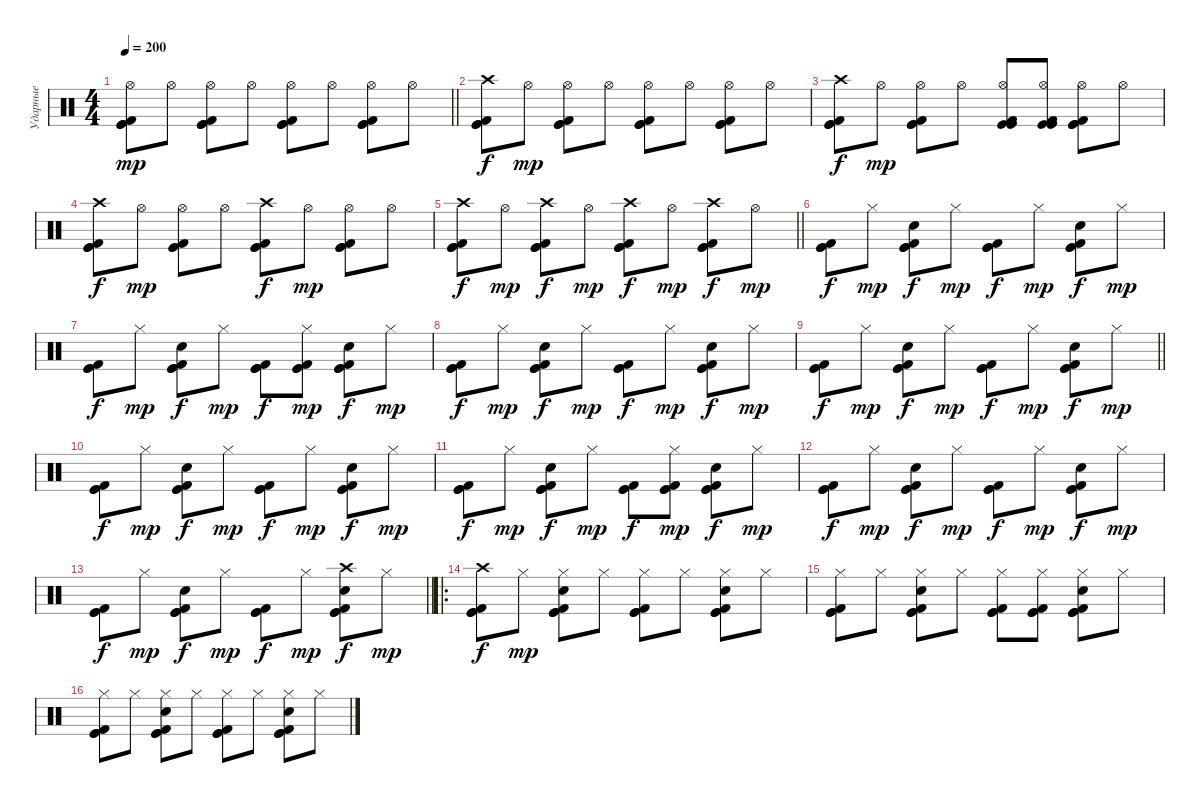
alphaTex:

\track ("Ударные" "Ударные") {instrument percussion}
\staff {score}
\articulation defaults
\ts (4 4)
\tempo 200
\clef neutral
\barLineRight lightlight
\ks c
("Kick (hit)" "Kick (hit)" "Hi-Hat (open)" "Kick (hit) 2").8{dy mp} "Hi-Hat (open)".8 ("Kick (hit)" "Kick (hit)" "Hi-Hat (open)" "Kick (hit) 2").8 "Hi-Hat (open)".8 ("Kick (hit)" "Kick (hit)" "Hi-Hat (open)" "Kick (hit) 2").8 "Hi-Hat (open)".8 ("Kick (hit)" "Kick (hit)" "Hi-Hat (open)" "Kick (hit) 2").8 "Hi-Hat (open)".8 |
("Kick (hit)" "Kick (hit)" "Crash high (hit)" "Kick (hit) 2").8{dy f} "Hi-Hat (open)".8{dy mp} ("Kick (hit)" "Kick (hit)" "Hi-Hat (open)" "Kick (hit) 2").8 "Hi-Hat (open)".8 ("Kick (hit)" "Kick (hit)" "Hi-Hat (open)" "Kick (hit) 2").8 "Hi-Hat (open)".8 ("Kick (hit)" "Kick (hit)" "Hi-Hat (open)" "Kick (hit) 2").8 "Hi-Hat (open)".8 |
("Kick (hit)" "Kick (hit)" "Crash high (hit)" "Kick (hit) 2").8{dy f} "Hi-Hat (open)".8{dy mp} ("Kick (hit)" "Kick (hit)" "Hi-Hat (open)" "Kick (hit) 2").8 "Hi-Hat (open)".8 ("Kick (hit)" "Kick (hit)" "Hi-Hat (open)" "Kick (hit) 2").8 ("Kick (hit)" "Kick (hit)" "Hi-Hat (open)" "Kick (hit) 2").8 ("Kick (hit)" "Kick (hit)" "Hi-Hat (open)" "Kick (hit) 2").8 "Hi-Hat (open)".8 |
("Kick (hit)" "Kick (hit)" "Crash high (hit)" "Kick (hit) 2").8{dy f} "Hi-Hat (open)".8{dy mp} ("Kick (hit)" "Kick (hit)" "Hi-Hat (open)" "Kick (hit) 2").8 "Hi-Hat (open)".8 ("Kick (hit)" "Kick (hit)" "Crash high (hit)" "Kick (hit) 2").8{dy f} "Hi-Hat (open)".8{dy mp} ("Kick (hit)" "Kick (hit)" "Hi-Hat (open)" "Kick (hit) 2").8 "Hi-Hat (open)".8 |
\barLineRight lightlight
("Kick (hit)" "Kick (hit)" "Crash high (hit)" "Kick (hit) 2").8{dy f} "Hi-Hat (open)".8{dy mp} ("Kick (hit)" "Kick (hit)" "Crash high (hit)" "Kick (hit) 2").8{dy f} "Hi-Hat (open)".8{dy mp} ("Kick (hit)" "Kick (hit)" "Crash high (hit)" "Kick (hit) 2").8{dy f} "Hi-Hat (open)".8{dy mp} ("Kick (hit)" "Kick (hit)" "Crash high (hit)" "Kick (hit) 2").8{dy f} "Hi-Hat (open)".8{dy mp} |
("Kick (hit)" "Kick (hit)" "Kick (hit) 2").8{dy f} "Hi-Hat (closed)".8{dy mp} ("Kick (hit)" "Kick (hit)" "Hand Clap (hit)" "Kick (hit) 2").8{dy f} "Hi-Hat (closed)".8{dy mp} ("Kick (hit)" "Kick (hit)" "Kick (hit) 2").8{dy f} "Hi-Hat (closed)".8{dy mp} ("Kick (hit)" "Kick (hit)" "Hand Clap (hit)" "Kick (hit) 2").8{dy f} "Hi-Hat (closed)".8{dy mp} |
("Kick (hit)" "Kick (hit)" "Kick (hit) 2").8{dy f} "Hi-Hat (closed)".8{dy mp} ("Kick (hit)" "Kick (hit)" "Hand Clap (hit)" "Kick (hit) 2").8{dy f} "Hi-Hat (closed)".8{dy mp} ("Kick (hit)" "Kick (hit)" "Kick (hit) 2").8{dy f} ("Kick (hit)" "Kick (hit)" "Hi-Hat (closed)" "Kick (hit) 2").8{dy mp} ("Kick (hit)" "Kick (hit)" "Hand Clap (hit)" "Kick (hit) 2").8{dy f} "Hi-Hat (closed)".8{dy mp} |
("Kick (hit)" "Kick (hit)" "Kick (hit) 2").8{dy f} "Hi-Hat (closed)".8{dy mp} ("Kick (hit)" "Kick (hit)" "Hand Clap (hit)" "Kick (hit) 2").8{dy f} "Hi-Hat (closed)".8{dy mp} ("Kick (hit)" "Kick (hit)" "Kick (hit) 2").8{dy f} "Hi-Hat (closed)".8{dy mp} ("Kick (hit)" "Kick (hit)" "Hand Clap (hit)" "Kick (hit) 2").8{dy f} "Hi-Hat (closed)".8{dy mp} |
\barLineRight lightlight
("Kick (hit)" "Kick (hit)" "Kick (hit) 2").8{dy f} "Hi-Hat (closed)".8{dy mp} ("Kick (hit)" "Kick (hit)" "Hand Clap (hit)" "Kick (hit) 2").8{dy f} "Hi-Hat (closed)".8{dy mp} ("Kick (hit)" "Kick (hit)" "Kick (hit) 2").8{dy f} "Hi-Hat (closed)".8{dy mp} ("Kick (hit)" "Kick (hit)" "Hand Clap (hit)" "Kick (hit) 2").8{dy f} "Hi-Hat (closed)".8{dy mp} |
("Kick (hit)" "Kick (hit)" "Kick (hit) 2").8{dy f} "Hi-Hat (closed)".8{dy mp} ("Kick (hit)" "Kick (hit)" "Hand Clap (hit)" "Kick (hit) 2").8{dy f} "Hi-Hat (closed)".8{dy mp} ("Kick (hit)" "Kick (hit)" "Kick (hit) 2").8{dy f} "Hi-Hat (closed)".8{dy mp} ("Kick (hit)" "Kick (hit)" "Hand Clap (hit)" "Kick (hit) 2").8{dy f} "Hi-Hat (closed)".8{dy mp} |
("Kick (hit)" "Kick (hit)" "Kick (hit) 2").8{dy f} "Hi-Hat (closed)".8{dy mp} ("Kick (hit)" "Kick (hit)" "Hand Clap (hit)" "Kick (hit) 2").8{dy f} "Hi-Hat (closed)".8{dy mp} ("Kick (hit)" "Kick (hit)" "Kick (hit) 2").8{dy f} ("Kick (hit)" "Kick (hit)" "Hi-Hat (closed)" "Kick (hit) 2").8{dy mp} ("Kick (hit)" "Kick (hit)" "Hand Clap (hit)" "Kick (hit) 2").8{dy f} "Hi-Hat (closed)".8{dy mp} |
("Kick (hit)" "Kick (hit)" "Kick (hit) 2").8{dy f} "Hi-Hat (closed)".8{dy mp} ("Kick (hit)" "Kick (hit)" "Hand Clap (hit)" "Kick (hit) 2").8{dy f} "Hi-Hat (closed)".8{dy mp} ("Kick (hit)" "Kick (hit)" "Kick (hit) 2").8{dy f} "Hi-Hat (closed)".8{dy mp} ("Kick (hit)" "Kick (hit)" "Hand Clap (hit)" "Kick (hit) 2").8{dy f} "Hi-Hat (closed)".8{dy mp} |
\barLineRight lightlight
("Kick (hit)" "Kick (hit)" "Kick (hit) 2").8{dy f} "Hi-Hat (closed)".8{dy mp} ("Kick (hit)" "Kick (hit)" "Hand Clap (hit)" "Kick (hit) 2").8{dy f} "Hi-Hat (closed)".8{dy mp} ("Kick (hit)" "Kick (hit)" "Kick (hit) 2").8{dy f} "Hi-Hat (closed)".8{dy mp} ("Kick (hit)" "Kick (hit)" "Hand Clap (hit)" "Crash high (hit)" "Kick (hit) 2").8{dy f} "Hi-Hat (closed)".8{dy mp} |
\ro
("Kick (hit)" "Kick (hit)" "Crash high (hit)" "Kick (hit) 2").8{dy f} "Hi-Hat (closed)".8{dy mp} ("Kick (hit)" "Kick (hit)" "Hi-Hat (closed)" "Hand Clap (hit)" "Kick (hit) 2").8 "Hi-Hat (closed)".8 ("Kick (hit)" "Kick (hit)" "Hi-Hat (closed)" "Kick (hit) 2").8 "Hi-Hat (closed)".8 ("Kick (hit)" "Kick (hit)" "Hi-Hat (closed)" "Hand Clap (hit)" "Kick (hit) 2").8 "Hi-Hat (closed)".8 |
("Kick (hit)" "Kick (hit)" "Hi-Hat (closed)" "Kick (hit) 2").8 "Hi-Hat (closed)".8 ("Kick (hit)" "Kick (hit)" "Hi-Hat (closed)" "Hand Clap (hit)" "Kick (hit) 2").8 "Hi-Hat (closed)".8 ("Kick (hit)" "Kick (hit)" "Hi-Hat (closed)" "Kick (hit) 2").8 ("Kick (hit)" "Kick (hit)" "Hi-Hat (closed)" "Kick (hit) 2").8 ("Kick (hit)" "Kick (hit)" "Hi-Hat (closed)" "Hand Clap (hit)" "Kick (hit) 2").8 "Hi-Hat (closed)".8 |
("Kick (hit)" "Kick (hit)" "Hi-Hat (closed)" "Kick (hit) 2").8 "Hi-Hat (closed)".8 ("Kick (hit)" "Kick (hit)" "Hi-Hat (closed)" "Hand Clap (hit)" "Kick (hit) 2").8 "Hi-Hat (closed)".8 ("Kick (hit)" "Kick (hit)" "Hi-Hat (closed)" "Kick (hit) 2").8 "Hi-Hat (closed)".8 ("Kick (hit)" "Kick (hit)" "Hi-Hat (closed)" "Hand Clap (hit)" "Kick (hit) 2").8 "Hi-Hat (closed)".8
